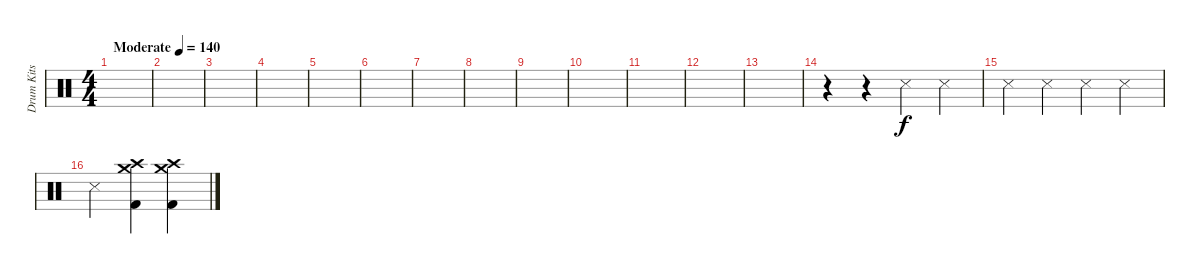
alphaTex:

\track ("Drum Kits" "Drum Kits") {instrument percussion}
\staff {score}
\articulation defaults
\ts (4 4)
\tempo (140 "Moderate")
\clef neutral
\ks c
|
|
|
|
|
|
|
|
|
|
|
|
|
r.4 r.4 "Snare (side stick) 3".4 "Snare (side stick) 3".4 |
"Snare (side stick) 3".4 "Snare (side stick) 3".4 "Snare (side stick) 3".4 "Snare (side stick) 3".4 |
"Snare (side stick) 3".2 ("Crash medium (hit)" "Crash high (hit)" "Kick (hit) 2").4 ("Crash medium (hit)" "Crash high (hit)" "Kick (hit) 2").4
